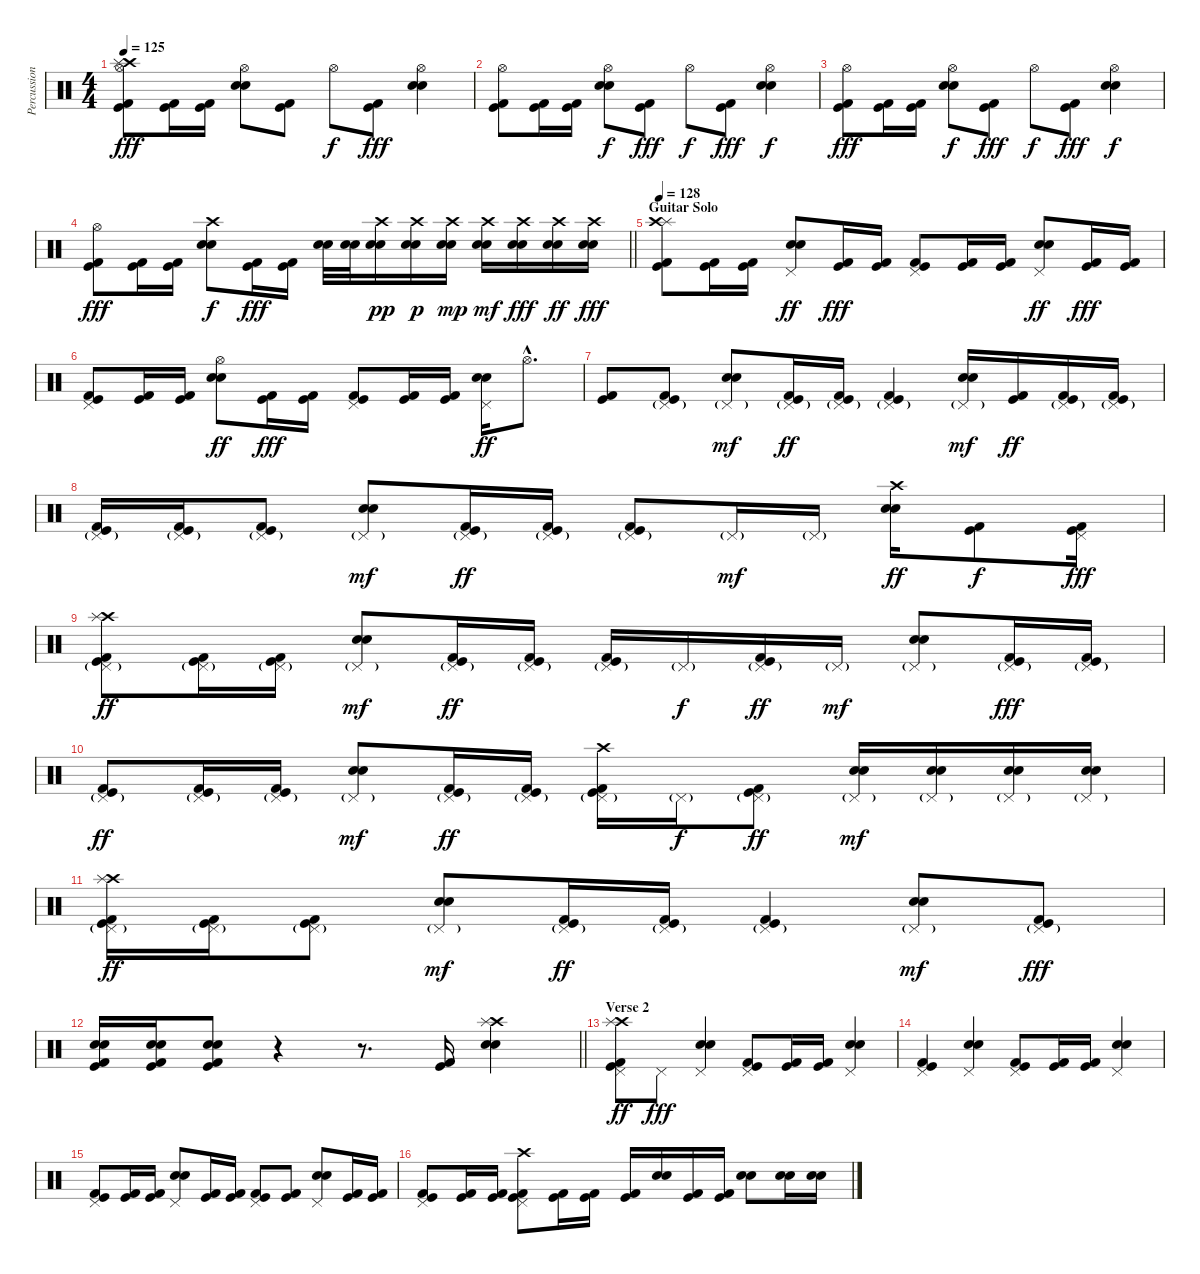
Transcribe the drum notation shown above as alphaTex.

\track ("Percussion" "Percussion") {instrument percussion}
\staff {score}
\articulation defaults
\ts (4 4)
\tempo 125
\clef neutral
\ks c
("Crash high (hit)" "Splash (hit)" "Hi-Hat (open)" "Kick (hit)" "Kick (hit) 2").8{dy fff} ("Kick (hit)" "Kick (hit) 2").16 ("Kick (hit)" "Kick (hit) 2").16 ("Electric Snare (hit)" "Snare (hit) 2" "Hi-Hat (open)").8 ("Kick (hit)" "Kick (hit) 2").8 "Hi-Hat (open)".8{dy f} ("Kick (hit)" "Kick (hit) 2").8{dy fff} ("Electric Snare (hit)" "Snare (hit) 2" "Hi-Hat (open)").4 |
("Hi-Hat (open)" "Kick (hit)" "Kick (hit) 2").8 ("Kick (hit)" "Kick (hit) 2").16 ("Kick (hit)" "Kick (hit) 2").16 ("Electric Snare (hit)" "Snare (hit) 2" "Hi-Hat (open)").8{dy f} ("Kick (hit)" "Kick (hit) 2").8{dy fff} "Hi-Hat (open)".8{dy f} ("Kick (hit)" "Kick (hit) 2").8{dy fff} ("Electric Snare (hit)" "Snare (hit) 2" "Hi-Hat (open)").4{dy f} |
("Hi-Hat (open)" "Kick (hit)" "Kick (hit) 2").8{dy fff} ("Kick (hit)" "Kick (hit) 2").16 ("Kick (hit)" "Kick (hit) 2").16 ("Electric Snare (hit)" "Snare (hit) 2" "Hi-Hat (open)").8{dy f} ("Kick (hit)" "Kick (hit) 2").8{dy fff} "Hi-Hat (open)".8{dy f} ("Kick (hit)" "Kick (hit) 2").8{dy fff} ("Electric Snare (hit)" "Snare (hit) 2" "Hi-Hat (open)").4{dy f} |
\barLineRight lightlight
("Hi-Hat (open)" "Kick (hit)" "Kick (hit) 2").8{dy fff} ("Kick (hit)" "Kick (hit) 2").16 ("Kick (hit)" "Kick (hit) 2").16 ("Electric Snare (hit)" "Snare (hit) 2" "Crash high (hit)").8{dy f} ("Kick (hit)" "Kick (hit) 2").16{dy fff} ("Kick (hit)" "Kick (hit) 2").16 ("Electric Snare (hit)" "Snare (hit) 2").32 ("Electric Snare (hit)" "Snare (hit) 2").32 ("Electric Snare (hit)" "Snare (hit) 2" "Crash high (hit)").16{dy pp} ("Electric Snare (hit)" "Snare (hit) 2" "Crash high (hit)").16{dy p} ("Electric Snare (hit)" "Snare (hit) 2" "Crash high (hit)").16{dy mp} ("Electric Snare (hit)" "Snare (hit) 2" "Crash high (hit)").16{dy mf} ("Electric Snare (hit)" "Snare (hit) 2" "Crash high (hit)").16{dy fff} ("Electric Snare (hit)" "Snare (hit) 2" "Crash high (hit)").16{dy ff} ("Electric Snare (hit)" "Snare (hit) 2" "Crash high (hit)").16{dy fff} |
\section ("" "Guitar Solo")
\tempo 128
("Splash (hit)" "Crash high (hit)" "Kick (hit)" "Kick (hit) 2").8 ("Kick (hit)" "Kick (hit) 2").16 ("Kick (hit)" "Kick (hit) 2").16 ("Electric Snare (hit)" "Snare (hit) 2" "Pedal Hi-Hat (hit)").8{dy ff} ("Kick (hit)" "Kick (hit) 2").16{dy fff} ("Kick (hit)" "Kick (hit) 2").16 ("Pedal Hi-Hat (hit)" "Kick (hit)" "Kick (hit) 2").8 ("Kick (hit)" "Kick (hit) 2").16 ("Kick (hit)" "Kick (hit) 2").16 ("Electric Snare (hit)" "Snare (hit) 2" "Pedal Hi-Hat (hit)").8{dy ff} ("Kick (hit)" "Kick (hit) 2").16{dy fff} ("Kick (hit)" "Kick (hit) 2").16 |
("Pedal Hi-Hat (hit)" "Kick (hit)" "Kick (hit) 2").8 ("Kick (hit)" "Kick (hit) 2").16 ("Kick (hit)" "Kick (hit) 2").16 ("Electric Snare (hit)" "Snare (hit) 2" "Hi-Hat (open)").8{dy ff} ("Kick (hit)" "Kick (hit) 2").16{dy fff} ("Kick (hit)" "Kick (hit) 2").16 ("Pedal Hi-Hat (hit)" "Kick (hit)" "Kick (hit) 2").8 ("Kick (hit)" "Kick (hit) 2").16 ("Kick (hit)" "Kick (hit) 2").16 ("Electric Snare (hit)" "Snare (hit) 2" "Pedal Hi-Hat (hit)").16{dy ff} "Hi-Hat (open)"{hac}.8{d} |
("Kick (hit)" "Kick (hit) 2").8 ("Pedal Hi-Hat (hit)"{g} "Kick (hit)" "Kick (hit) 2").8 ("Electric Snare (hit)" "Snare (hit) 2" "Pedal Hi-Hat (hit)"{g}).8{dy mf} ("Pedal Hi-Hat (hit)"{g} "Kick (hit)" "Kick (hit) 2").16{dy ff} ("Pedal Hi-Hat (hit)"{g} "Kick (hit)" "Kick (hit) 2").16 ("Pedal Hi-Hat (hit)"{g} "Kick (hit)" "Kick (hit) 2").4 ("Electric Snare (hit)" "Snare (hit) 2" "Pedal Hi-Hat (hit)"{g}).16{dy mf} ("Kick (hit)" "Kick (hit) 2").16{dy ff} ("Pedal Hi-Hat (hit)"{g} "Kick (hit)" "Kick (hit) 2").16 ("Pedal Hi-Hat (hit)"{g} "Kick (hit)" "Kick (hit) 2").16 |
("Pedal Hi-Hat (hit)"{g} "Kick (hit)" "Kick (hit) 2").16 ("Pedal Hi-Hat (hit)"{g} "Kick (hit)" "Kick (hit) 2").16 ("Pedal Hi-Hat (hit)"{g} "Kick (hit)" "Kick (hit) 2").8 ("Electric Snare (hit)" "Snare (hit) 2" "Pedal Hi-Hat (hit)"{g}).8{dy mf} ("Pedal Hi-Hat (hit)"{g} "Kick (hit)" "Kick (hit) 2").16{dy ff} ("Pedal Hi-Hat (hit)"{g} "Kick (hit)" "Kick (hit) 2").16 ("Pedal Hi-Hat (hit)"{g} "Kick (hit)" "Kick (hit) 2").8 "Pedal Hi-Hat (hit)"{g}.16{dy mf} "Pedal Hi-Hat (hit)"{g}.16 ("Electric Snare (hit)" "Snare (hit) 2" "Crash high (hit)").16{dy ff} ("Kick (hit)" "Kick (hit) 2").8{dy f} ("Pedal Hi-Hat (hit)" "Kick (hit)" "Kick (hit) 2").16{dy fff} |
("Crash high (hit)" "Splash (hit)" "Pedal Hi-Hat (hit)"{g} "Kick (hit)" "Kick (hit) 2").8{dy ff} ("Pedal Hi-Hat (hit)"{g} "Kick (hit)" "Kick (hit) 2").16 ("Pedal Hi-Hat (hit)"{g} "Kick (hit)" "Kick (hit) 2").16 ("Electric Snare (hit)" "Snare (hit) 2" "Pedal Hi-Hat (hit)"{g}).8{dy mf} ("Pedal Hi-Hat (hit)"{g} "Kick (hit)" "Kick (hit) 2").16{dy ff} ("Pedal Hi-Hat (hit)"{g} "Kick (hit)" "Kick (hit) 2").16 ("Pedal Hi-Hat (hit)"{g} "Kick (hit)" "Kick (hit) 2").16 "Pedal Hi-Hat (hit)"{g}.16{dy f} ("Pedal Hi-Hat (hit)"{g} "Kick (hit)" "Kick (hit) 2").16{dy ff} "Pedal Hi-Hat (hit)"{g}.16{dy mf} ("Electric Snare (hit)" "Snare (hit) 2" "Pedal Hi-Hat (hit)"{g}).8 ("Pedal Hi-Hat (hit)"{g} "Kick (hit)" "Kick (hit) 2").16{dy fff} ("Pedal Hi-Hat (hit)"{g} "Kick (hit)" "Kick (hit) 2").16 |
("Pedal Hi-Hat (hit)"{g} "Kick (hit)" "Kick (hit) 2").8{dy ff} ("Pedal Hi-Hat (hit)"{g} "Kick (hit)" "Kick (hit) 2").16 ("Pedal Hi-Hat (hit)"{g} "Kick (hit)" "Kick (hit) 2").16 ("Electric Snare (hit)" "Snare (hit) 2" "Pedal Hi-Hat (hit)"{g}).8{dy mf} ("Pedal Hi-Hat (hit)"{g} "Kick (hit)" "Kick (hit) 2").16{dy ff} ("Pedal Hi-Hat (hit)"{g} "Kick (hit)" "Kick (hit) 2").16 ("Crash high (hit)" "Pedal Hi-Hat (hit)"{g} "Kick (hit)" "Kick (hit) 2").16 "Pedal Hi-Hat (hit)"{g}.16{dy f} ("Pedal Hi-Hat (hit)"{g} "Kick (hit)" "Kick (hit) 2").8{dy ff} ("Electric Snare (hit)" "Snare (hit) 2" "Pedal Hi-Hat (hit)"{g}).16{dy mf} ("Electric Snare (hit)" "Snare (hit) 2" "Pedal Hi-Hat (hit)"{g}).16 ("Electric Snare (hit)" "Snare (hit) 2" "Pedal Hi-Hat (hit)"{g}).16 ("Electric Snare (hit)" "Snare (hit) 2" "Pedal Hi-Hat (hit)"{g}).16 |
("Crash high (hit)" "Splash (hit)" "Pedal Hi-Hat (hit)"{g} "Kick (hit)" "Kick (hit) 2").16{dy ff} ("Pedal Hi-Hat (hit)"{g} "Kick (hit)" "Kick (hit) 2").16 ("Pedal Hi-Hat (hit)"{g} "Kick (hit)" "Kick (hit) 2").8 ("Electric Snare (hit)" "Snare (hit) 2" "Pedal Hi-Hat (hit)"{g}).8{dy mf} ("Pedal Hi-Hat (hit)"{g} "Kick (hit)" "Kick (hit) 2").16{dy ff} ("Pedal Hi-Hat (hit)"{g} "Kick (hit)" "Kick (hit) 2").16 ("Pedal Hi-Hat (hit)"{g} "Kick (hit)" "Kick (hit) 2").4 ("Electric Snare (hit)" "Snare (hit) 2" "Pedal Hi-Hat (hit)"{g}).8{dy mf} ("Pedal Hi-Hat (hit)"{g} "Kick (hit)" "Kick (hit) 2").8{dy fff} |
\barLineRight lightlight
("Electric Snare (hit)" "Snare (hit) 2" "Kick (hit)" "Kick (hit) 2").16 ("Electric Snare (hit)" "Snare (hit) 2" "Kick (hit)" "Kick (hit) 2").16 ("Electric Snare (hit)" "Snare (hit) 2" "Kick (hit)" "Kick (hit) 2").8 r.4 r.8{d} ("Kick (hit)" "Kick (hit) 2").16 ("Electric Snare (hit)" "Snare (hit) 2" "Crash high (hit)" "Splash (hit)").4{bd 60} |
\section ("" "Verse 2")
("Crash high (hit)" "Splash (hit)" "Pedal Hi-Hat (hit)" "Kick (hit)" "Kick (hit) 2").8{dy ff} "Pedal Hi-Hat (hit)".8{dy fff} ("Electric Snare (hit)" "Snare (hit) 2" "Pedal Hi-Hat (hit)").4 ("Pedal Hi-Hat (hit)" "Kick (hit)" "Kick (hit) 2").8 ("Kick (hit)" "Kick (hit) 2").16 ("Kick (hit)" "Kick (hit) 2").16 ("Electric Snare (hit)" "Snare (hit) 2" "Pedal Hi-Hat (hit)").4 |
("Pedal Hi-Hat (hit)" "Kick (hit)" "Kick (hit) 2").4 ("Electric Snare (hit)" "Snare (hit) 2" "Pedal Hi-Hat (hit)").4 ("Pedal Hi-Hat (hit)" "Kick (hit)" "Kick (hit) 2").8 ("Kick (hit)" "Kick (hit) 2").16 ("Kick (hit)" "Kick (hit) 2").16 ("Electric Snare (hit)" "Snare (hit) 2" "Pedal Hi-Hat (hit)").4 |
("Pedal Hi-Hat (hit)" "Kick (hit)" "Kick (hit) 2").8 ("Kick (hit)" "Kick (hit) 2").16 ("Kick (hit)" "Kick (hit) 2").16 ("Electric Snare (hit)" "Snare (hit) 2" "Pedal Hi-Hat (hit)").8 ("Kick (hit)" "Kick (hit) 2").16 ("Kick (hit)" "Kick (hit) 2").16 ("Pedal Hi-Hat (hit)" "Kick (hit)" "Kick (hit) 2").8 ("Kick (hit)" "Kick (hit) 2").8 ("Electric Snare (hit)" "Snare (hit) 2" "Pedal Hi-Hat (hit)").8 ("Kick (hit)" "Kick (hit) 2").16 ("Kick (hit)" "Kick (hit) 2").16 |
("Pedal Hi-Hat (hit)" "Kick (hit)" "Kick (hit) 2").8 ("Kick (hit)" "Kick (hit) 2").16 ("Kick (hit)" "Kick (hit) 2").16 ("Crash high (hit)" "Pedal Hi-Hat (hit)" "Kick (hit)" "Kick (hit) 2").8 ("Kick (hit)" "Kick (hit) 2").16 ("Kick (hit)" "Kick (hit) 2").16 ("Kick (hit)" "Kick (hit) 2").16 ("Electric Snare (hit)" "Snare (hit) 2").16 ("Kick (hit)" "Kick (hit) 2").16 ("Kick (hit)" "Kick (hit) 2").16 ("Electric Snare (hit)" "Snare (hit) 2").8 ("Electric Snare (hit)" "Snare (hit) 2").16 ("Electric Snare (hit)" "Snare (hit) 2").16
